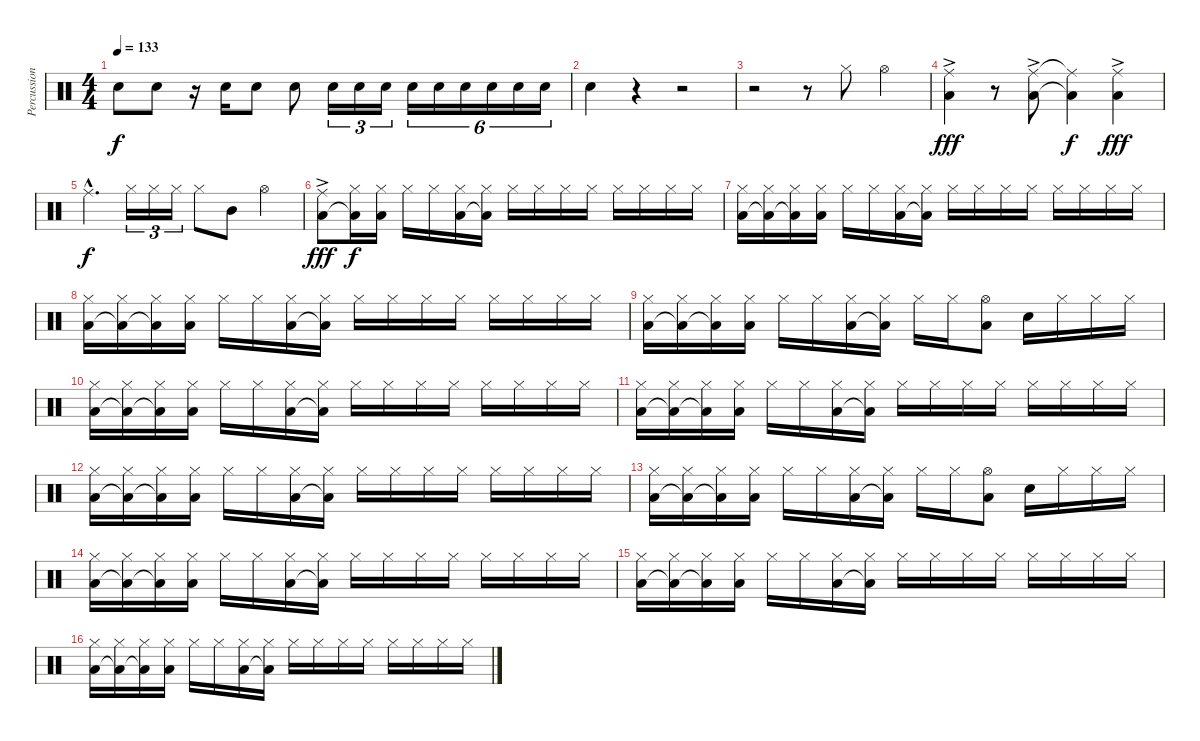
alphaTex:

\track ("Percussion" "Percussion") {instrument percussion}
\staff {score}
\articulation defaults
\ts (4 4)
\tempo 133
\clef neutral
\ks c "Snare (hit) 2".8{dy f} "Snare (hit) 2".8
r.16 "Snare (hit) 2".16 "Snare (hit) 2".8 "Snare (hit) 2".8 "Snare (hit) 2".16{tu (3 2)} "Snare (hit) 2".16{tu (3 2)} "Snare (hit) 2".16{tu (3 2)} "Snare (hit) 2".16{tu (6 4)} "Snare (hit) 2".16{tu (6 4)} "Snare (hit) 2".16{tu (6 4)} "Snare (hit) 2".16{tu (6 4)} "Snare (hit) 2".16{tu (6 4)} "Snare (hit) 2".16{tu (6 4)} |
"Snare (hit) 2".4 r.4 r.2 |
r.2 r.8 "Hi-Hat (closed)".8 "Hi-Hat (open)".4 |
("Ride (middle)"{ac} "Low Floor Tom (hit)").4{dy fff} r.8 ("Ride (middle)"{ac} "Low Floor Tom (hit)").8 ("Ride (middle)"{t} "Low Floor Tom (hit)"{t}).4{dy f} ("Ride (middle)"{ac} "Low Floor Tom (hit)").4{dy fff} |
"Ride (middle)"{hac}.4{d dy f} "Hi-Hat (closed)".16{tu (3 2)} "Hi-Hat (closed)".16{tu (3 2)} "Hi-Hat (closed)".16{tu (3 2)} "Hi-Hat (closed)".8 "Mid Tom (hit)".8 "Hi-Hat (open)".4 |
("Ride (middle)"{ac} "Low Floor Tom (hit)").8{dy fff} ("Hi-Hat (closed)" "Low Floor Tom (hit)"{t}).16{dy f} ("Hi-Hat (closed)" "Low Floor Tom (hit)").16 "Hi-Hat (closed)".16 "Hi-Hat (closed)".16 ("Hi-Hat (closed)" "Low Floor Tom (hit)").16 ("Hi-Hat (closed)" "Low Floor Tom (hit)"{t}).16 "Hi-Hat (closed)".16 "Hi-Hat (closed)".16 "Hi-Hat (closed)".16 "Hi-Hat (closed)".16 "Hi-Hat (closed)".16 "Hi-Hat (closed)".16 "Hi-Hat (closed)".16 "Hi-Hat (closed)".16 |
("Hi-Hat (closed)" "Low Floor Tom (hit)").16 ("Hi-Hat (closed)" "Low Floor Tom (hit)"{t}).16 ("Hi-Hat (closed)" "Low Floor Tom (hit)"{t}).16 ("Hi-Hat (closed)" "Low Floor Tom (hit)").16 "Hi-Hat (closed)".16 "Hi-Hat (closed)".16 ("Hi-Hat (closed)" "Low Floor Tom (hit)").16 ("Hi-Hat (closed)" "Low Floor Tom (hit)"{t}).16 "Hi-Hat (closed)".16 "Hi-Hat (closed)".16 "Hi-Hat (closed)".16 "Hi-Hat (closed)".16 "Hi-Hat (closed)".16 "Hi-Hat (closed)".16 "Hi-Hat (closed)".16 "Hi-Hat (closed)".16 |
("Hi-Hat (closed)" "Low Floor Tom (hit)").16 ("Hi-Hat (closed)" "Low Floor Tom (hit)"{t}).16 ("Hi-Hat (closed)" "Low Floor Tom (hit)"{t}).16 ("Hi-Hat (closed)" "Low Floor Tom (hit)").16 "Hi-Hat (closed)".16 "Hi-Hat (closed)".16 ("Hi-Hat (closed)" "Low Floor Tom (hit)").16 ("Hi-Hat (closed)" "Low Floor Tom (hit)"{t}).16 "Hi-Hat (closed)".16 "Hi-Hat (closed)".16 "Hi-Hat (closed)".16 "Hi-Hat (closed)".16 "Hi-Hat (closed)".16 "Hi-Hat (closed)".16 "Hi-Hat (closed)".16 "Hi-Hat (closed)".16 |
("Hi-Hat (closed)" "Low Floor Tom (hit)").16 ("Hi-Hat (closed)" "Low Floor Tom (hit)"{t}).16 ("Hi-Hat (closed)" "Low Floor Tom (hit)"{t}).16 ("Hi-Hat (closed)" "Low Floor Tom (hit)").16 "Hi-Hat (closed)".16 "Hi-Hat (closed)".16 ("Hi-Hat (closed)" "Low Floor Tom (hit)").16 ("Hi-Hat (closed)" "Low Floor Tom (hit)"{t}).16 "Hi-Hat (closed)".16 "Hi-Hat (closed)".16 ("Hi-Hat (open)" "Low Floor Tom (hit)").8 "Snare (hit) 2".16 "Hi-Hat (closed)".16 "Hi-Hat (closed)".16 "Hi-Hat (closed)".16 |
("Hi-Hat (closed)" "Low Floor Tom (hit)").16 ("Hi-Hat (closed)" "Low Floor Tom (hit)"{t}).16 ("Hi-Hat (closed)" "Low Floor Tom (hit)"{t}).16 ("Hi-Hat (closed)" "Low Floor Tom (hit)").16 "Hi-Hat (closed)".16 "Hi-Hat (closed)".16 ("Hi-Hat (closed)" "Low Floor Tom (hit)").16 ("Hi-Hat (closed)" "Low Floor Tom (hit)"{t}).16 "Hi-Hat (closed)".16 "Hi-Hat (closed)".16 "Hi-Hat (closed)".16 "Hi-Hat (closed)".16 "Hi-Hat (closed)".16 "Hi-Hat (closed)".16 "Hi-Hat (closed)".16 "Hi-Hat (closed)".16 |
("Hi-Hat (closed)" "Low Floor Tom (hit)").16 ("Hi-Hat (closed)" "Low Floor Tom (hit)"{t}).16 ("Hi-Hat (closed)" "Low Floor Tom (hit)"{t}).16 ("Hi-Hat (closed)" "Low Floor Tom (hit)").16 "Hi-Hat (closed)".16 "Hi-Hat (closed)".16 ("Hi-Hat (closed)" "Low Floor Tom (hit)").16 ("Hi-Hat (closed)" "Low Floor Tom (hit)"{t}).16 "Hi-Hat (closed)".16 "Hi-Hat (closed)".16 "Hi-Hat (closed)".16 "Hi-Hat (closed)".16 "Hi-Hat (closed)".16 "Hi-Hat (closed)".16 "Hi-Hat (closed)".16 "Hi-Hat (closed)".16 |
("Hi-Hat (closed)" "Low Floor Tom (hit)").16 ("Hi-Hat (closed)" "Low Floor Tom (hit)"{t}).16 ("Hi-Hat (closed)" "Low Floor Tom (hit)"{t}).16 ("Hi-Hat (closed)" "Low Floor Tom (hit)").16 "Hi-Hat (closed)".16 "Hi-Hat (closed)".16 ("Hi-Hat (closed)" "Low Floor Tom (hit)").16 ("Hi-Hat (closed)" "Low Floor Tom (hit)"{t}).16 "Hi-Hat (closed)".16 "Hi-Hat (closed)".16 "Hi-Hat (closed)".16 "Hi-Hat (closed)".16 "Hi-Hat (closed)".16 "Hi-Hat (closed)".16 "Hi-Hat (closed)".16 "Hi-Hat (closed)".16 |
("Hi-Hat (closed)" "Low Floor Tom (hit)").16 ("Hi-Hat (closed)" "Low Floor Tom (hit)"{t}).16 ("Hi-Hat (closed)" "Low Floor Tom (hit)"{t}).16 ("Hi-Hat (closed)" "Low Floor Tom (hit)").16 "Hi-Hat (closed)".16 "Hi-Hat (closed)".16 ("Hi-Hat (closed)" "Low Floor Tom (hit)").16 ("Hi-Hat (closed)" "Low Floor Tom (hit)"{t}).16 "Hi-Hat (closed)".16 "Hi-Hat (closed)".16 ("Hi-Hat (open)" "Low Floor Tom (hit)").8 "Snare (hit) 2".16 "Hi-Hat (closed)".16 "Hi-Hat (closed)".16 "Hi-Hat (closed)".16 |
("Hi-Hat (closed)" "Low Floor Tom (hit)").16 ("Hi-Hat (closed)" "Low Floor Tom (hit)"{t}).16 ("Hi-Hat (closed)" "Low Floor Tom (hit)"{t}).16 ("Hi-Hat (closed)" "Low Floor Tom (hit)").16 "Hi-Hat (closed)".16 "Hi-Hat (closed)".16 ("Hi-Hat (closed)" "Low Floor Tom (hit)").16 ("Hi-Hat (closed)" "Low Floor Tom (hit)"{t}).16 "Hi-Hat (closed)".16 "Hi-Hat (closed)".16 "Hi-Hat (closed)".16 "Hi-Hat (closed)".16 "Hi-Hat (closed)".16 "Hi-Hat (closed)".16 "Hi-Hat (closed)".16 "Hi-Hat (closed)".16 |
("Hi-Hat (closed)" "Low Floor Tom (hit)").16 ("Hi-Hat (closed)" "Low Floor Tom (hit)"{t}).16 ("Hi-Hat (closed)" "Low Floor Tom (hit)"{t}).16 ("Hi-Hat (closed)" "Low Floor Tom (hit)").16 "Hi-Hat (closed)".16 "Hi-Hat (closed)".16 ("Hi-Hat (closed)" "Low Floor Tom (hit)").16 ("Hi-Hat (closed)" "Low Floor Tom (hit)"{t}).16 "Hi-Hat (closed)".16 "Hi-Hat (closed)".16 "Hi-Hat (closed)".16 "Hi-Hat (closed)".16 "Hi-Hat (closed)".16 "Hi-Hat (closed)".16 "Hi-Hat (closed)".16 "Hi-Hat (closed)".16 |
("Hi-Hat (closed)" "Low Floor Tom (hit)").16 ("Hi-Hat (closed)" "Low Floor Tom (hit)"{t}).16 ("Hi-Hat (closed)" "Low Floor Tom (hit)"{t}).16 ("Hi-Hat (closed)" "Low Floor Tom (hit)").16 "Hi-Hat (closed)".16 "Hi-Hat (closed)".16 ("Hi-Hat (closed)" "Low Floor Tom (hit)").16 ("Hi-Hat (closed)" "Low Floor Tom (hit)"{t}).16 "Hi-Hat (closed)".16 "Hi-Hat (closed)".16 "Hi-Hat (closed)".16 "Hi-Hat (closed)".16 "Hi-Hat (closed)".16 "Hi-Hat (closed)".16 "Hi-Hat (closed)".16 "Hi-Hat (closed)".16
